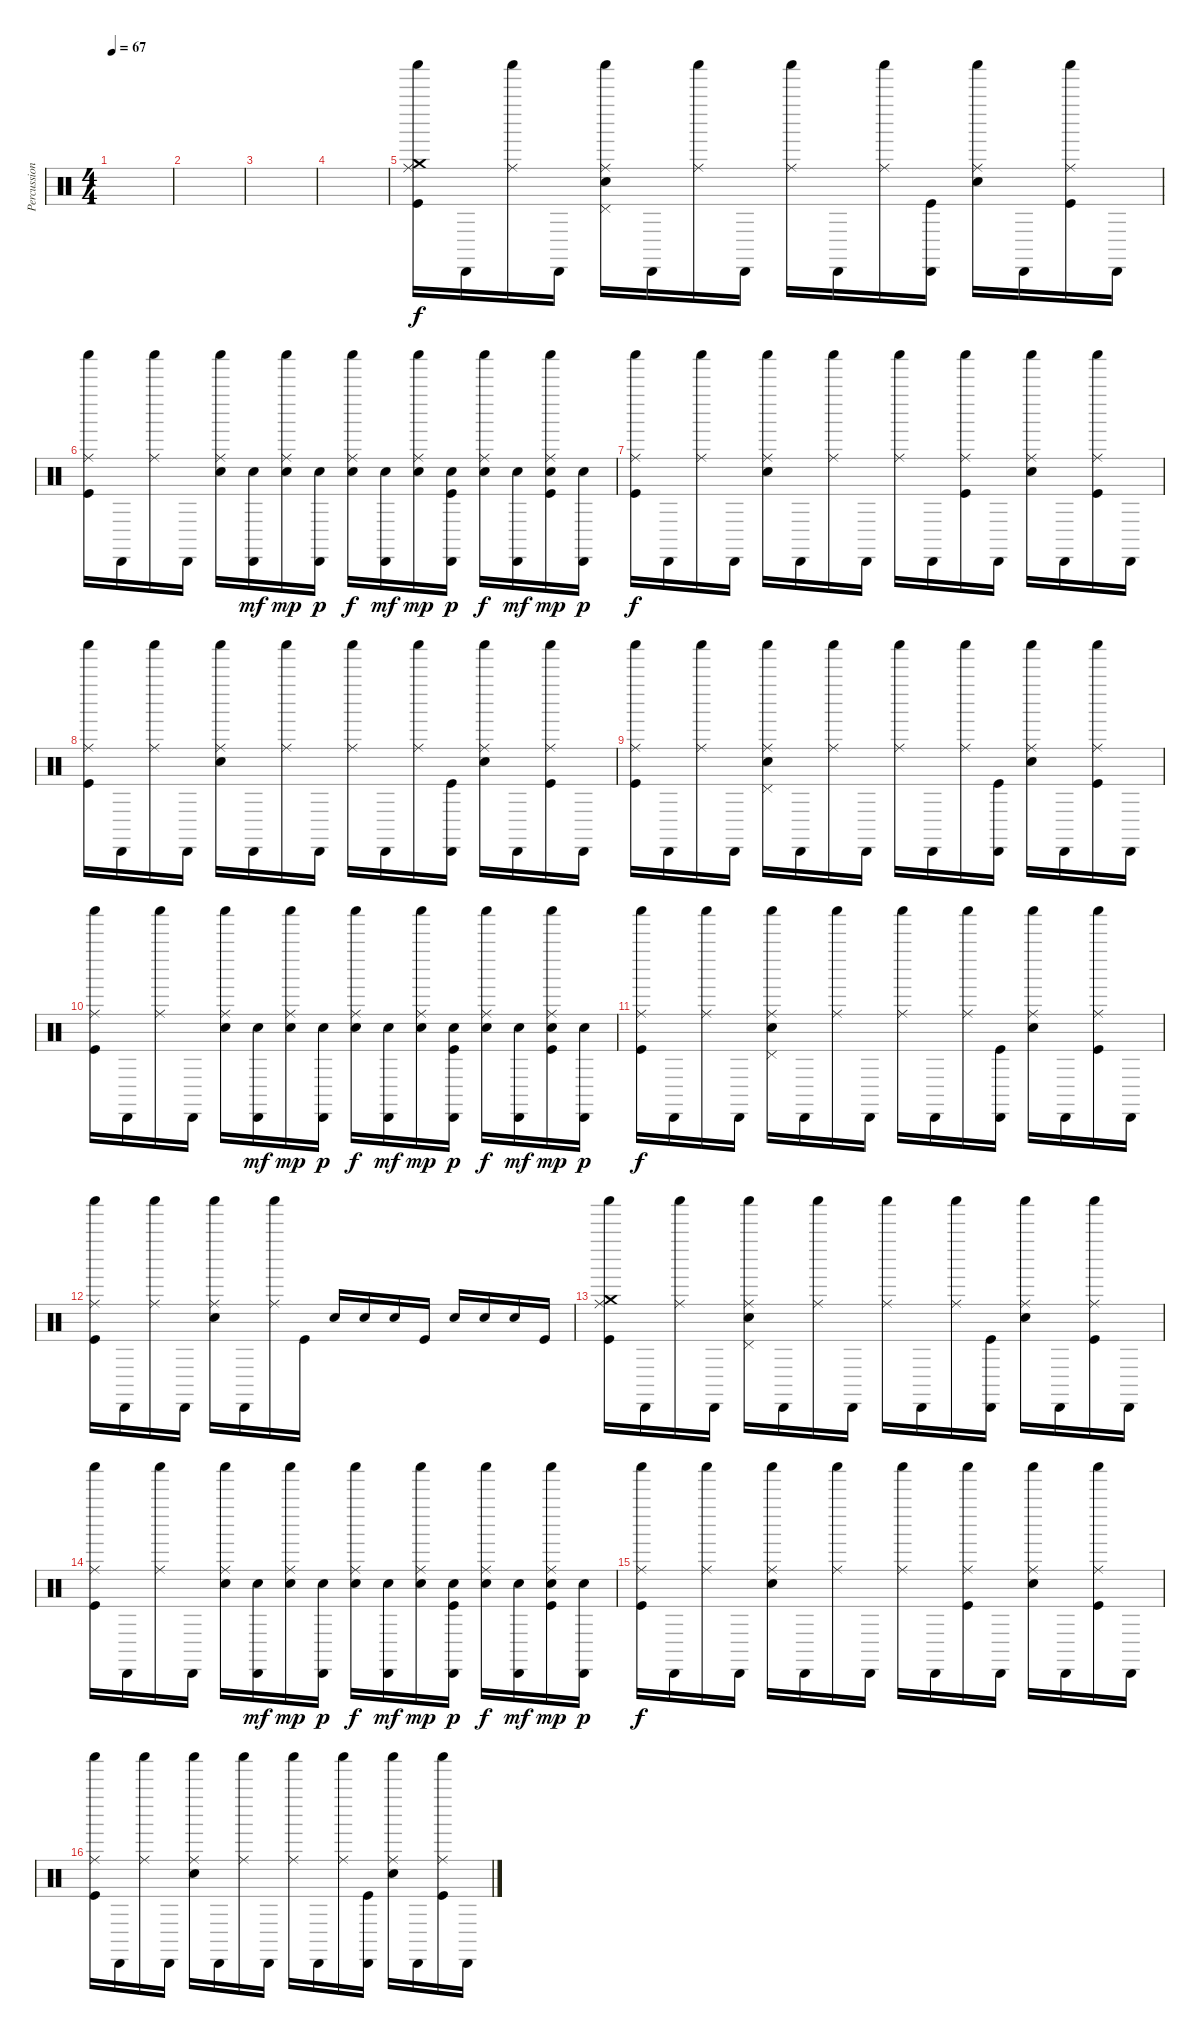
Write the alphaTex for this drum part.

\track ("Percussions" "Percussion") {instrument percussion}
\staff {score}
\articulation defaults
\ts (4 4)
\tempo 67
\clef neutral
\ks c
|
|
|
|
\section ("" "")
("Shaker (hit)" "Crash medium (hit)" "Ride (middle)" "Kick (hit)").16 "Cabasa (hit)".16 ("Shaker (hit)" "Ride (middle)").16 "Cabasa (hit)".16 ("Shaker (hit)" "Ride (middle)" "Pedal Hi-Hat (hit)" "Snare (hit) 2").16 "Cabasa (hit)".16 ("Shaker (hit)" "Ride (middle)").16 "Cabasa (hit)".16 ("Shaker (hit)" "Ride (middle)").16 "Cabasa (hit)".16 ("Shaker (hit)" "Ride (middle)").16 ("Cabasa (hit)" "Kick (hit)").16 ("Shaker (hit)" "Ride (middle)" "Snare (hit) 2").16 "Cabasa (hit)".16 ("Shaker (hit)" "Ride (middle)" "Kick (hit)").16 "Cabasa (hit)".16 |
("Shaker (hit)" "Ride (middle)" "Kick (hit)").16 "Cabasa (hit)".16 ("Shaker (hit)" "Ride (middle)").16 "Cabasa (hit)".16 ("Shaker (hit)" "Ride (middle)" "Snare (hit) 2").16 ("Cabasa (hit)" "Snare (hit) 2").16{dy mf} ("Shaker (hit)" "Ride (middle)" "Snare (hit) 2").16{dy mp} ("Cabasa (hit)" "Snare (hit) 2").16{dy p} ("Shaker (hit)" "Ride (middle)" "Snare (hit) 2").16{dy f} ("Cabasa (hit)" "Snare (hit) 2").16{dy mf} ("Shaker (hit)" "Ride (middle)" "Snare (hit) 2").16{dy mp} ("Cabasa (hit)" "Snare (hit) 2" "Kick (hit)").16{dy p} ("Shaker (hit)" "Ride (middle)" "Snare (hit) 2").16{dy f} ("Cabasa (hit)" "Snare (hit) 2").16{dy mf} ("Shaker (hit)" "Ride (middle)" "Snare (hit) 2" "Kick (hit)").16{dy mp} ("Cabasa (hit)" "Snare (hit) 2").16{dy p} |
("Shaker (hit)" "Ride (middle)" "Kick (hit)").16{dy f} "Cabasa (hit)".16 ("Shaker (hit)" "Ride (middle)").16 "Cabasa (hit)".16 ("Shaker (hit)" "Ride (middle)" "Snare (hit) 2").16 "Cabasa (hit)".16 ("Shaker (hit)" "Ride (middle)").16 "Cabasa (hit)".16 ("Shaker (hit)" "Ride (middle)").16 "Cabasa (hit)".16 ("Shaker (hit)" "Ride (middle)" "Kick (hit)").16 "Cabasa (hit)".16 ("Shaker (hit)" "Ride (middle)" "Snare (hit) 2").16 "Cabasa (hit)".16 ("Shaker (hit)" "Ride (middle)" "Kick (hit)").16 "Cabasa (hit)".16 |
("Shaker (hit)" "Ride (middle)" "Kick (hit)").16 "Cabasa (hit)".16 ("Shaker (hit)" "Ride (middle)").16 "Cabasa (hit)".16 ("Shaker (hit)" "Ride (middle)" "Snare (hit) 2").16 "Cabasa (hit)".16 ("Shaker (hit)" "Ride (middle)").16 "Cabasa (hit)".16 ("Shaker (hit)" "Ride (middle)").16 "Cabasa (hit)".16 ("Shaker (hit)" "Ride (middle)").16 ("Cabasa (hit)" "Kick (hit)").16 ("Shaker (hit)" "Ride (middle)" "Snare (hit) 2").16 "Cabasa (hit)".16 ("Shaker (hit)" "Ride (middle)" "Kick (hit)").16 "Cabasa (hit)".16 |
("Shaker (hit)" "Ride (middle)" "Kick (hit)").16 "Cabasa (hit)".16 ("Shaker (hit)" "Ride (middle)").16 "Cabasa (hit)".16 ("Shaker (hit)" "Ride (middle)" "Pedal Hi-Hat (hit)" "Snare (hit) 2").16 "Cabasa (hit)".16 ("Shaker (hit)" "Ride (middle)").16 "Cabasa (hit)".16 ("Shaker (hit)" "Ride (middle)").16 "Cabasa (hit)".16 ("Shaker (hit)" "Ride (middle)").16 ("Cabasa (hit)" "Kick (hit)").16 ("Shaker (hit)" "Ride (middle)" "Snare (hit) 2").16 "Cabasa (hit)".16 ("Shaker (hit)" "Ride (middle)" "Kick (hit)").16 "Cabasa (hit)".16 |
("Shaker (hit)" "Ride (middle)" "Kick (hit)").16 "Cabasa (hit)".16 ("Shaker (hit)" "Ride (middle)").16 "Cabasa (hit)".16 ("Shaker (hit)" "Ride (middle)" "Snare (hit) 2").16 ("Cabasa (hit)" "Snare (hit) 2").16{dy mf} ("Shaker (hit)" "Ride (middle)" "Snare (hit) 2").16{dy mp} ("Cabasa (hit)" "Snare (hit) 2").16{dy p} ("Shaker (hit)" "Ride (middle)" "Snare (hit) 2").16{dy f} ("Cabasa (hit)" "Snare (hit) 2").16{dy mf} ("Shaker (hit)" "Ride (middle)" "Snare (hit) 2").16{dy mp} ("Cabasa (hit)" "Snare (hit) 2" "Kick (hit)").16{dy p} ("Shaker (hit)" "Ride (middle)" "Snare (hit) 2").16{dy f} ("Cabasa (hit)" "Snare (hit) 2").16{dy mf} ("Shaker (hit)" "Ride (middle)" "Snare (hit) 2" "Kick (hit)").16{dy mp} ("Cabasa (hit)" "Snare (hit) 2").16{dy p} |
("Shaker (hit)" "Ride (middle)" "Kick (hit)").16{dy f} "Cabasa (hit)".16 ("Shaker (hit)" "Ride (middle)").16 "Cabasa (hit)".16 ("Shaker (hit)" "Ride (middle)" "Pedal Hi-Hat (hit)" "Snare (hit) 2").16 "Cabasa (hit)".16 ("Shaker (hit)" "Ride (middle)").16 "Cabasa (hit)".16 ("Shaker (hit)" "Ride (middle)").16 "Cabasa (hit)".16 ("Shaker (hit)" "Ride (middle)").16 ("Cabasa (hit)" "Kick (hit)").16 ("Shaker (hit)" "Ride (middle)" "Snare (hit) 2").16 "Cabasa (hit)".16 ("Shaker (hit)" "Ride (middle)" "Kick (hit)").16 "Cabasa (hit)".16 |
("Shaker (hit)" "Ride (middle)" "Kick (hit)").16 "Cabasa (hit)".16 ("Shaker (hit)" "Ride (middle)").16 "Cabasa (hit)".16 ("Shaker (hit)" "Ride (middle)" "Snare (hit) 2").16 "Cabasa (hit)".16 ("Shaker (hit)" "Ride (middle)").16 "Kick (hit)".16 "Snare (hit) 2".16 "Electric Snare (hit)".16 "Electric Snare (hit)".16 "Kick (hit)".16 "Snare (hit) 2".16 "Electric Snare (hit)".16 "Electric Snare (hit)".16 "Kick (hit)".16 |
("Shaker (hit)" "Crash medium (hit)" "Ride (middle)" "Kick (hit)").16 "Cabasa (hit)".16 ("Shaker (hit)" "Ride (middle)").16 "Cabasa (hit)".16 ("Shaker (hit)" "Ride (middle)" "Pedal Hi-Hat (hit)" "Snare (hit) 2").16 "Cabasa (hit)".16 ("Shaker (hit)" "Ride (middle)").16 "Cabasa (hit)".16 ("Shaker (hit)" "Ride (middle)").16 "Cabasa (hit)".16 ("Shaker (hit)" "Ride (middle)").16 ("Cabasa (hit)" "Kick (hit)").16 ("Shaker (hit)" "Ride (middle)" "Snare (hit) 2").16 "Cabasa (hit)".16 ("Shaker (hit)" "Ride (middle)" "Kick (hit)").16 "Cabasa (hit)".16 |
("Shaker (hit)" "Ride (middle)" "Kick (hit)").16 "Cabasa (hit)".16 ("Shaker (hit)" "Ride (middle)").16 "Cabasa (hit)".16 ("Shaker (hit)" "Ride (middle)" "Snare (hit) 2").16 ("Cabasa (hit)" "Snare (hit) 2").16{dy mf} ("Shaker (hit)" "Ride (middle)" "Snare (hit) 2").16{dy mp} ("Cabasa (hit)" "Snare (hit) 2").16{dy p} ("Shaker (hit)" "Ride (middle)" "Snare (hit) 2").16{dy f} ("Cabasa (hit)" "Snare (hit) 2").16{dy mf} ("Shaker (hit)" "Ride (middle)" "Snare (hit) 2").16{dy mp} ("Cabasa (hit)" "Snare (hit) 2" "Kick (hit)").16{dy p} ("Shaker (hit)" "Ride (middle)" "Snare (hit) 2").16{dy f} ("Cabasa (hit)" "Snare (hit) 2").16{dy mf} ("Shaker (hit)" "Ride (middle)" "Snare (hit) 2" "Kick (hit)").16{dy mp} ("Cabasa (hit)" "Snare (hit) 2").16{dy p} |
("Shaker (hit)" "Ride (middle)" "Kick (hit)").16{dy f} "Cabasa (hit)".16 ("Shaker (hit)" "Ride (middle)").16 "Cabasa (hit)".16 ("Shaker (hit)" "Ride (middle)" "Snare (hit) 2").16 "Cabasa (hit)".16 ("Shaker (hit)" "Ride (middle)").16 "Cabasa (hit)".16 ("Shaker (hit)" "Ride (middle)").16 "Cabasa (hit)".16 ("Shaker (hit)" "Ride (middle)" "Kick (hit)").16 "Cabasa (hit)".16 ("Shaker (hit)" "Ride (middle)" "Snare (hit) 2").16 "Cabasa (hit)".16 ("Shaker (hit)" "Ride (middle)" "Kick (hit)").16 "Cabasa (hit)".16 |
("Shaker (hit)" "Ride (middle)" "Kick (hit)").16 "Cabasa (hit)".16 ("Shaker (hit)" "Ride (middle)").16 "Cabasa (hit)".16 ("Shaker (hit)" "Ride (middle)" "Snare (hit) 2").16 "Cabasa (hit)".16 ("Shaker (hit)" "Ride (middle)").16 "Cabasa (hit)".16 ("Shaker (hit)" "Ride (middle)").16 "Cabasa (hit)".16 ("Shaker (hit)" "Ride (middle)").16 ("Cabasa (hit)" "Kick (hit)").16 ("Shaker (hit)" "Ride (middle)" "Snare (hit) 2").16 "Cabasa (hit)".16 ("Shaker (hit)" "Ride (middle)" "Kick (hit)").16 "Cabasa (hit)".16
